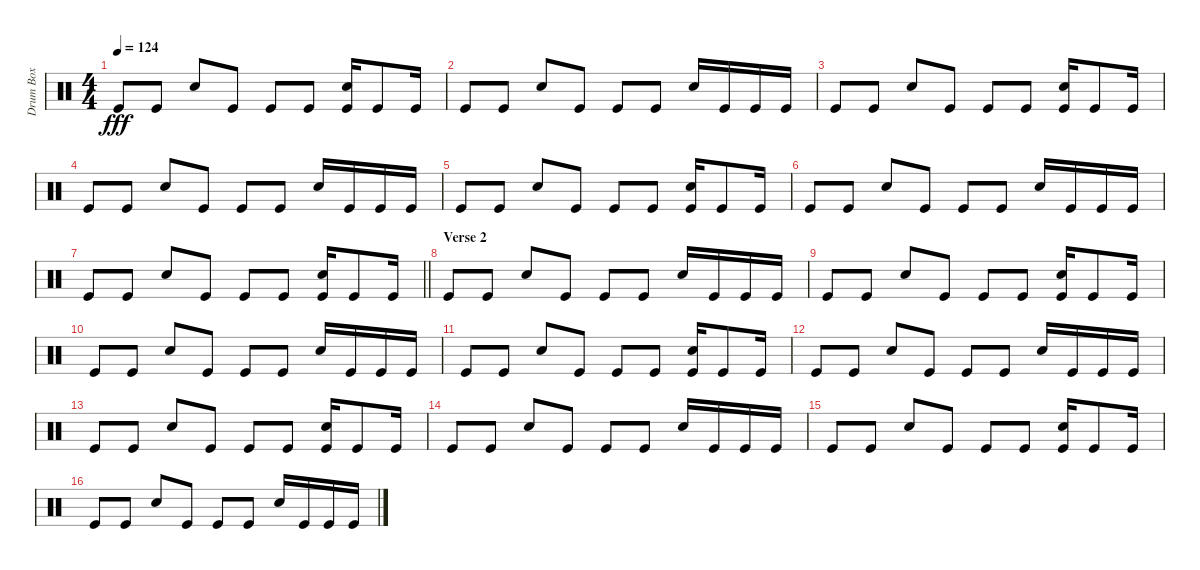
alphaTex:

\track ("Drum Box" "Drum Box") {instrument percussion}
\staff {score}
\articulation defaults
\ts (4 4)
\tempo 124
\clef neutral
\ks c "Kick (hit)".8{dy fff} "Kick (hit)".8 "Snare (hit) 2".8 "Kick (hit)".8 "Kick (hit)".8 "Kick (hit)".8
("Snare (hit) 2" "Kick (hit)").16 "Kick (hit)".8 "Kick (hit)".16 |
"Kick (hit)".8 "Kick (hit)".8 "Snare (hit) 2".8 "Kick (hit)".8 "Kick (hit)".8 "Kick (hit)".8 "Snare (hit) 2".16 "Kick (hit)".16 "Kick (hit)".16 "Kick (hit)".16 |
"Kick (hit)".8 "Kick (hit)".8 "Snare (hit) 2".8 "Kick (hit)".8 "Kick (hit)".8 "Kick (hit)".8 ("Snare (hit) 2" "Kick (hit)").16 "Kick (hit)".8 "Kick (hit)".16 |
"Kick (hit)".8 "Kick (hit)".8 "Snare (hit) 2".8 "Kick (hit)".8 "Kick (hit)".8 "Kick (hit)".8 "Snare (hit) 2".16 "Kick (hit)".16 "Kick (hit)".16 "Kick (hit)".16 |
"Kick (hit)".8 "Kick (hit)".8 "Snare (hit) 2".8 "Kick (hit)".8 "Kick (hit)".8 "Kick (hit)".8 ("Snare (hit) 2" "Kick (hit)").16 "Kick (hit)".8 "Kick (hit)".16 |
"Kick (hit)".8 "Kick (hit)".8 "Snare (hit) 2".8 "Kick (hit)".8 "Kick (hit)".8 "Kick (hit)".8 "Snare (hit) 2".16 "Kick (hit)".16 "Kick (hit)".16 "Kick (hit)".16 |
\barLineRight lightlight "Kick (hit)".8 "Kick (hit)".8 "Snare (hit) 2".8 "Kick (hit)".8 "Kick (hit)".8 "Kick (hit)".8
("Snare (hit) 2" "Kick (hit)").16 "Kick (hit)".8 "Kick (hit)".16 |
\section ("" "Verse 2")
"Kick (hit)".8 "Kick (hit)".8 "Snare (hit) 2".8 "Kick (hit)".8 "Kick (hit)".8 "Kick (hit)".8 "Snare (hit) 2".16 "Kick (hit)".16 "Kick (hit)".16 "Kick (hit)".16 |
"Kick (hit)".8 "Kick (hit)".8 "Snare (hit) 2".8 "Kick (hit)".8 "Kick (hit)".8 "Kick (hit)".8 ("Snare (hit) 2" "Kick (hit)").16 "Kick (hit)".8 "Kick (hit)".16 |
"Kick (hit)".8 "Kick (hit)".8 "Snare (hit) 2".8 "Kick (hit)".8 "Kick (hit)".8 "Kick (hit)".8 "Snare (hit) 2".16 "Kick (hit)".16 "Kick (hit)".16 "Kick (hit)".16 |
"Kick (hit)".8 "Kick (hit)".8 "Snare (hit) 2".8 "Kick (hit)".8 "Kick (hit)".8 "Kick (hit)".8 ("Snare (hit) 2" "Kick (hit)").16 "Kick (hit)".8 "Kick (hit)".16 |
"Kick (hit)".8 "Kick (hit)".8 "Snare (hit) 2".8 "Kick (hit)".8 "Kick (hit)".8 "Kick (hit)".8 "Snare (hit) 2".16 "Kick (hit)".16 "Kick (hit)".16 "Kick (hit)".16 |
"Kick (hit)".8 "Kick (hit)".8 "Snare (hit) 2".8 "Kick (hit)".8 "Kick (hit)".8 "Kick (hit)".8 ("Snare (hit) 2" "Kick (hit)").16 "Kick (hit)".8 "Kick (hit)".16 |
"Kick (hit)".8 "Kick (hit)".8 "Snare (hit) 2".8 "Kick (hit)".8 "Kick (hit)".8 "Kick (hit)".8 "Snare (hit) 2".16 "Kick (hit)".16 "Kick (hit)".16 "Kick (hit)".16 |
"Kick (hit)".8 "Kick (hit)".8 "Snare (hit) 2".8 "Kick (hit)".8 "Kick (hit)".8 "Kick (hit)".8 ("Snare (hit) 2" "Kick (hit)").16 "Kick (hit)".8 "Kick (hit)".16 |
"Kick (hit)".8 "Kick (hit)".8 "Snare (hit) 2".8 "Kick (hit)".8 "Kick (hit)".8 "Kick (hit)".8 "Snare (hit) 2".16 "Kick (hit)".16 "Kick (hit)".16 "Kick (hit)".16
